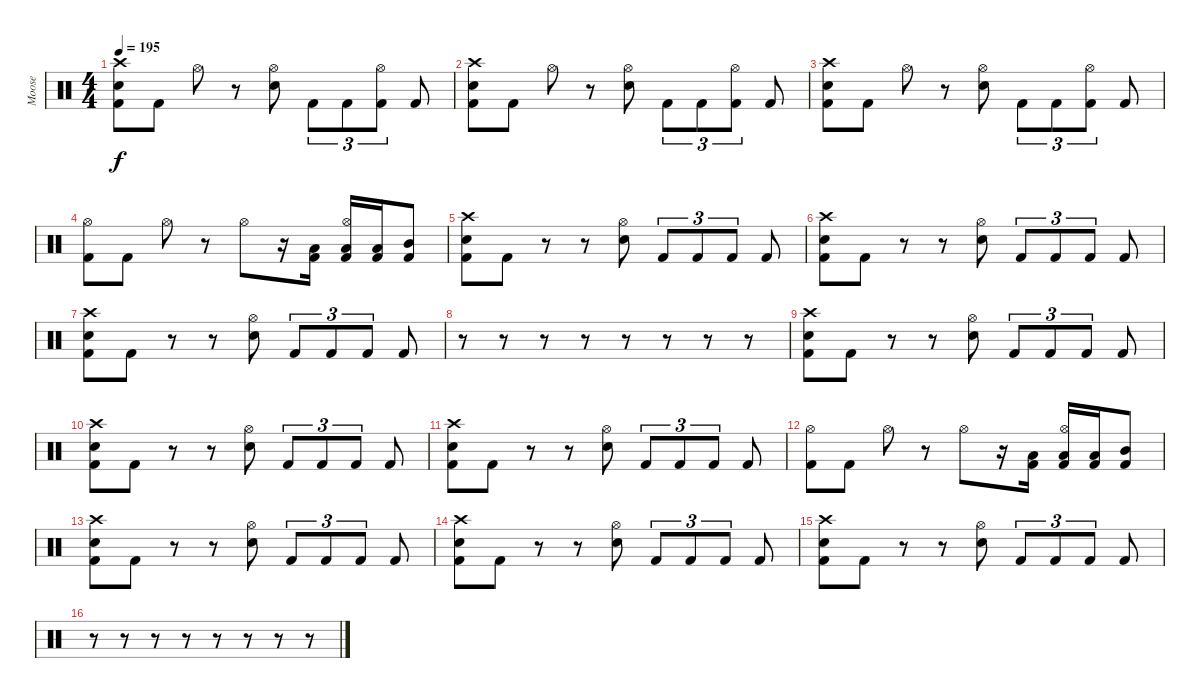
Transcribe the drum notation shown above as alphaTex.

\track ("Moose" "Moose") {instrument percussion}
\staff {score}
\articulation defaults
\ts (4 4)
\tempo 195
\clef neutral
\ks c
("Crash high (hit)" "Snare (hit) 2" "Kick (hit) 2").8{dy f} "Kick (hit) 2".8 "Hi-Hat (open)".8 r.8 ("Hi-Hat (open)" "Snare (hit) 2").8 "Kick (hit) 2".8{tu (3 2)} "Kick (hit) 2".8{tu (3 2)} ("Hi-Hat (open)" "Kick (hit) 2").8{tu (3 2)} "Kick (hit) 2".8 |
("Crash high (hit)" "Snare (hit) 2" "Kick (hit) 2").8 "Kick (hit) 2".8 "Hi-Hat (open)".8 r.8 ("Hi-Hat (open)" "Snare (hit) 2").8 "Kick (hit) 2".8{tu (3 2)} "Kick (hit) 2".8{tu (3 2)} ("Hi-Hat (open)" "Kick (hit) 2").8{tu (3 2)} "Kick (hit) 2".8 |
("Crash high (hit)" "Snare (hit) 2" "Kick (hit) 2").8 "Kick (hit) 2".8 "Hi-Hat (open)".8 r.8 ("Hi-Hat (open)" "Snare (hit) 2").8 "Kick (hit) 2".8{tu (3 2)} "Kick (hit) 2".8{tu (3 2)} ("Hi-Hat (open)" "Kick (hit) 2").8{tu (3 2)} "Kick (hit) 2".8 |
("Hi-Hat (open)" "Kick (hit) 2").8 "Kick (hit) 2".8 "Hi-Hat (open)".8 r.8 "Hi-Hat (open)".8 r.16 ("Low Tom (hit)" "Kick (hit) 2").16 ("Hi-Hat (open)" "Low Tom (hit)" "Kick (hit) 2").16 ("Low Tom (hit)" "Kick (hit) 2").16 ("Mid Tom (hit)" "Kick (hit) 2").8 |
("Crash high (hit)" "Snare (hit) 2" "Kick (hit) 2").8 "Kick (hit) 2".8 r.8 r.8 ("Hi-Hat (open)" "Snare (hit) 2").8 "Kick (hit) 2".8{tu (3 2)} "Kick (hit) 2".8{tu (3 2)} "Kick (hit) 2".8{tu (3 2)} "Kick (hit) 2".8 |
("Crash high (hit)" "Snare (hit) 2" "Kick (hit) 2").8 "Kick (hit) 2".8 r.8 r.8 ("Hi-Hat (open)" "Snare (hit) 2").8 "Kick (hit) 2".8{tu (3 2)} "Kick (hit) 2".8{tu (3 2)} "Kick (hit) 2".8{tu (3 2)} "Kick (hit) 2".8 |
("Crash high (hit)" "Snare (hit) 2" "Kick (hit) 2").8 "Kick (hit) 2".8 r.8 r.8 ("Hi-Hat (open)" "Snare (hit) 2").8 "Kick (hit) 2".8{tu (3 2)} "Kick (hit) 2".8{tu (3 2)} "Kick (hit) 2".8{tu (3 2)} "Kick (hit) 2".8 |
r.8 r.8 r.8 r.8 r.8 r.8 r.8 r.8 |
("Crash high (hit)" "Snare (hit) 2" "Kick (hit) 2").8 "Kick (hit) 2".8 r.8 r.8 ("Hi-Hat (open)" "Snare (hit) 2").8 "Kick (hit) 2".8{tu (3 2)} "Kick (hit) 2".8{tu (3 2)} "Kick (hit) 2".8{tu (3 2)} "Kick (hit) 2".8 |
("Crash high (hit)" "Snare (hit) 2" "Kick (hit) 2").8 "Kick (hit) 2".8 r.8 r.8 ("Hi-Hat (open)" "Snare (hit) 2").8 "Kick (hit) 2".8{tu (3 2)} "Kick (hit) 2".8{tu (3 2)} "Kick (hit) 2".8{tu (3 2)} "Kick (hit) 2".8 |
("Crash high (hit)" "Snare (hit) 2" "Kick (hit) 2").8 "Kick (hit) 2".8 r.8 r.8 ("Hi-Hat (open)" "Snare (hit) 2").8 "Kick (hit) 2".8{tu (3 2)} "Kick (hit) 2".8{tu (3 2)} "Kick (hit) 2".8{tu (3 2)} "Kick (hit) 2".8 |
("Hi-Hat (open)" "Kick (hit) 2").8 "Kick (hit) 2".8 "Hi-Hat (open)".8 r.8 "Hi-Hat (open)".8 r.16 ("Low Tom (hit)" "Kick (hit) 2").16 ("Hi-Hat (open)" "Low Tom (hit)" "Kick (hit) 2").16 ("Low Tom (hit)" "Kick (hit) 2").16 ("Mid Tom (hit)" "Kick (hit) 2").8 |
("Crash high (hit)" "Snare (hit) 2" "Kick (hit) 2").8 "Kick (hit) 2".8 r.8 r.8 ("Hi-Hat (open)" "Snare (hit) 2").8 "Kick (hit) 2".8{tu (3 2)} "Kick (hit) 2".8{tu (3 2)} "Kick (hit) 2".8{tu (3 2)} "Kick (hit) 2".8 |
("Crash high (hit)" "Snare (hit) 2" "Kick (hit) 2").8 "Kick (hit) 2".8 r.8 r.8 ("Hi-Hat (open)" "Snare (hit) 2").8 "Kick (hit) 2".8{tu (3 2)} "Kick (hit) 2".8{tu (3 2)} "Kick (hit) 2".8{tu (3 2)} "Kick (hit) 2".8 |
("Crash high (hit)" "Snare (hit) 2" "Kick (hit) 2").8 "Kick (hit) 2".8 r.8 r.8 ("Hi-Hat (open)" "Snare (hit) 2").8 "Kick (hit) 2".8{tu (3 2)} "Kick (hit) 2".8{tu (3 2)} "Kick (hit) 2".8{tu (3 2)} "Kick (hit) 2".8 |
r.8 r.8 r.8 r.8 r.8 r.8 r.8 r.8
